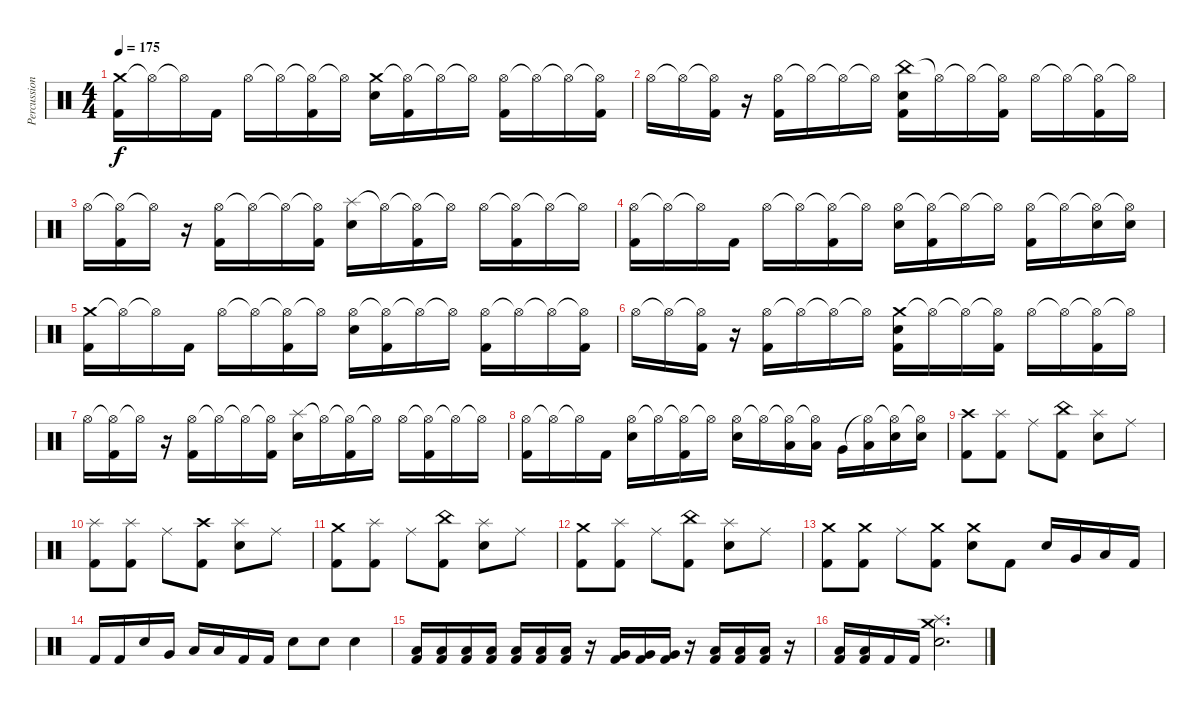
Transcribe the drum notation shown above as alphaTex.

\track ("Percussion" "Percussion") {instrument percussion}
\staff {score}
\articulation defaults
\ts (4 4)
\tempo 175
\clef neutral
\ks c
("Crash medium (hit)" "Kick (hit) 2").16{dy f} "Hi-Hat (open)"{t}.16 "Hi-Hat (open)"{t}.16 "Kick (hit) 2".16 "Hi-Hat (open)".16 "Hi-Hat (open)"{t}.16 ("Hi-Hat (open)"{t} "Kick (hit) 2").16 "Hi-Hat (open)"{t}.16 ("Crash medium (hit)" "Electric Snare (hit)").16 ("Hi-Hat (open)"{t} "Kick (hit) 2").16 "Hi-Hat (open)"{t}.16 "Hi-Hat (open)"{t}.16 ("Hi-Hat (open)" "Kick (hit) 2").16 "Hi-Hat (open)"{t}.16 "Hi-Hat (open)"{t}.16 ("Hi-Hat (open)"{t} "Kick (hit) 2").16 |
"Hi-Hat (open)".16 "Hi-Hat (open)"{t}.16 ("Hi-Hat (open)"{t} "Kick (hit) 2").16 r.16 ("Hi-Hat (open)" "Kick (hit) 2").16 "Hi-Hat (open)"{t}.16 "Hi-Hat (open)"{t}.16 "Hi-Hat (open)"{t}.16 ("China (hit)" "Electric Snare (hit)" "Kick (hit) 2").16 "Hi-Hat (open)"{t}.16 "Hi-Hat (open)"{t}.16 ("Hi-Hat (open)"{t} "Kick (hit) 2").16 "Hi-Hat (open)".16 "Hi-Hat (open)"{t}.16 ("Hi-Hat (open)"{t} "Kick (hit) 2").16 "Hi-Hat (open)"{t}.16 |
"Hi-Hat (open)".16 ("Hi-Hat (open)"{t} "Kick (hit) 2").16 "Hi-Hat (open)"{t}.16 r.16 ("Hi-Hat (open)" "Kick (hit) 2").16 "Hi-Hat (open)"{t}.16 "Hi-Hat (open)"{t}.16 ("Hi-Hat (open)"{t} "Kick (hit) 2").16 ("Splash (hit)" "Electric Snare (hit)").16 "Hi-Hat (open)"{t}.16 ("Hi-Hat (open)"{t} "Kick (hit) 2").16 "Hi-Hat (open)"{t}.16 "Hi-Hat (open)".16 ("Hi-Hat (open)"{t} "Kick (hit) 2").16 "Hi-Hat (open)"{t}.16 "Hi-Hat (open)"{t}.16 |
("Hi-Hat (open)" "Kick (hit) 2").16 "Hi-Hat (open)"{t}.16 "Hi-Hat (open)"{t}.16 "Kick (hit) 2".16 "Hi-Hat (open)".16 "Hi-Hat (open)"{t}.16 ("Hi-Hat (open)"{t} "Kick (hit) 2").16 "Hi-Hat (open)"{t}.16 ("Hi-Hat (open)" "Electric Snare (hit)").16 ("Hi-Hat (open)"{t} "Kick (hit) 2").16 "Hi-Hat (open)"{t}.16 "Hi-Hat (open)"{t}.16 ("Hi-Hat (open)" "Kick (hit) 2").16 "Hi-Hat (open)"{t}.16 ("Hi-Hat (open)"{t} "Electric Snare (hit)").16 ("Hi-Hat (open)"{t} "Electric Snare (hit)").16 |
("Crash medium (hit)" "Kick (hit) 2").16 "Hi-Hat (open)"{t}.16 "Hi-Hat (open)"{t}.16 "Kick (hit) 2".16 "Hi-Hat (open)".16 "Hi-Hat (open)"{t}.16 ("Hi-Hat (open)"{t} "Kick (hit) 2").16 "Hi-Hat (open)"{t}.16 ("Hi-Hat (open)" "Electric Snare (hit)").16 ("Hi-Hat (open)"{t} "Kick (hit) 2").16 "Hi-Hat (open)"{t}.16 "Hi-Hat (open)"{t}.16 ("Hi-Hat (open)" "Kick (hit) 2").16 "Hi-Hat (open)"{t}.16 "Hi-Hat (open)"{t}.16 ("Hi-Hat (open)"{t} "Kick (hit) 2").16 |
"Hi-Hat (open)".16 "Hi-Hat (open)"{t}.16 ("Hi-Hat (open)"{t} "Kick (hit) 2").16 r.16 ("Hi-Hat (open)" "Kick (hit) 2").16 "Hi-Hat (open)"{t}.16 "Hi-Hat (open)"{t}.16 "Hi-Hat (open)"{t}.16 ("Crash medium (hit)" "Electric Snare (hit)" "Kick (hit) 2").16 "Hi-Hat (open)"{t}.16 "Hi-Hat (open)"{t}.16 ("Hi-Hat (open)"{t} "Kick (hit) 2").16 "Hi-Hat (open)".16 "Hi-Hat (open)"{t}.16 ("Hi-Hat (open)"{t} "Kick (hit) 2").16 "Hi-Hat (open)"{t}.16 |
"Hi-Hat (open)".16 ("Hi-Hat (open)"{t} "Kick (hit) 2").16 "Hi-Hat (open)"{t}.16 r.16 ("Hi-Hat (open)" "Kick (hit) 2").16 "Hi-Hat (open)"{t}.16 "Hi-Hat (open)"{t}.16 ("Hi-Hat (open)"{t} "Kick (hit) 2").16 ("Splash (hit)" "Electric Snare (hit)").16 "Hi-Hat (open)"{t}.16 ("Hi-Hat (open)"{t} "Kick (hit) 2").16 "Hi-Hat (open)"{t}.16 "Hi-Hat (open)".16 ("Hi-Hat (open)"{t} "Kick (hit) 2").16 "Hi-Hat (open)"{t}.16 "Hi-Hat (open)"{t}.16 |
("Hi-Hat (open)" "Kick (hit) 2").16 "Hi-Hat (open)"{t}.16 "Hi-Hat (open)"{t}.16 "Kick (hit) 2".16 ("Hi-Hat (open)" "Electric Snare (hit)").16 "Hi-Hat (open)"{t}.16 ("Hi-Hat (open)"{t} "Kick (hit) 2").16 "Hi-Hat (open)"{t}.16 ("Hi-Hat (open)" "Electric Snare (hit)").16 "Hi-Hat (open)"{t}.16 ("Hi-Hat (open)"{t} "Low Tom (hit)").16 ("Hi-Hat (open)"{t} "Low Tom (hit)").16 "Very Low Tom (hit)".16 ("Hi-Hat (open)"{t} "Low Floor Tom (hit)").16 ("Hi-Hat (open)"{t} "Electric Snare (hit)").16 ("Hi-Hat (open)"{t} "Electric Snare (hit)").16 |
("Crash high (hit)" "Kick (hit) 2").8 ("Splash (hit)" "Kick (hit) 2").8 "Ride (middle)".8 ("China (hit)" "Kick (hit) 2").8 ("Splash (hit)" "Electric Snare (hit)").8 "Ride (middle)".8 |
("Splash (hit)" "Kick (hit) 2").8 ("Splash (hit)" "Kick (hit) 2").8 "Ride (middle)".8 ("Crash high (hit)" "Kick (hit) 2").8 ("Splash (hit)" "Electric Snare (hit)").8 "Ride (middle)".8 |
("Crash medium (hit)" "Kick (hit) 2").8 ("Splash (hit)" "Kick (hit) 2").8 "Ride (middle)".8 ("China (hit)" "Kick (hit) 2").8 ("Splash (hit)" "Electric Snare (hit)").8 "Ride (middle)".8 |
("Crash medium (hit)" "Kick (hit) 2").8 ("Splash (hit)" "Kick (hit) 2").8 "Ride (middle)".8 ("China (hit)" "Kick (hit) 2").8 ("Splash (hit)" "Electric Snare (hit)").8 "Ride (middle)".8 |
("Crash medium (hit)" "Kick (hit) 2").8 ("Crash medium (hit)" "Kick (hit) 2").8 "Ride (middle)".8 ("Crash medium (hit)" "Kick (hit) 2").8 ("Crash medium (hit)" "Electric Snare (hit)").8 "Kick (hit) 2".8 "Electric Snare (hit)".16 "Very Low Tom (hit)".16 "Low Floor Tom (hit)".16 "Kick (hit) 2".16 |
"Kick (hit) 2".16 "Kick (hit) 2".16 "Electric Snare (hit)".16 "Very Low Tom (hit)".16 "Low Floor Tom (hit)".16 "Low Floor Tom (hit)".16 "Kick (hit) 2".16 "Kick (hit) 2".16 "Electric Snare (hit)".8 "Electric Snare (hit)".8 "Electric Snare (hit)".4 |
("Kick (hit) 2" "Low Tom (hit)").16 ("Kick (hit) 2" "Low Tom (hit)").16 ("Kick (hit) 2" "Low Tom (hit)").16 ("Kick (hit) 2" "Low Tom (hit)").16 ("Kick (hit) 2" "Low Tom (hit)").16 ("Kick (hit) 2" "Low Tom (hit)").16 ("Kick (hit) 2" "Low Tom (hit)").16 r.16 ("Kick (hit) 2" "Very Low Tom (hit)").16 ("Kick (hit) 2" "Very Low Tom (hit)").16 ("Kick (hit) 2" "Very Low Tom (hit)").16 r.16 ("Kick (hit) 2" "Low Floor Tom (hit)").16 ("Kick (hit) 2" "Low Floor Tom (hit)").16 ("Kick (hit) 2" "Low Floor Tom (hit)").16 r.16 |
("Kick (hit) 2" "Low Floor Tom (hit)").16 ("Kick (hit) 2" "Low Floor Tom (hit)").16 "Kick (hit) 2".16 "Kick (hit) 2".16 ("Electric Snare (hit)" "Splash (hit)" "Crash medium (hit)").2{d}
